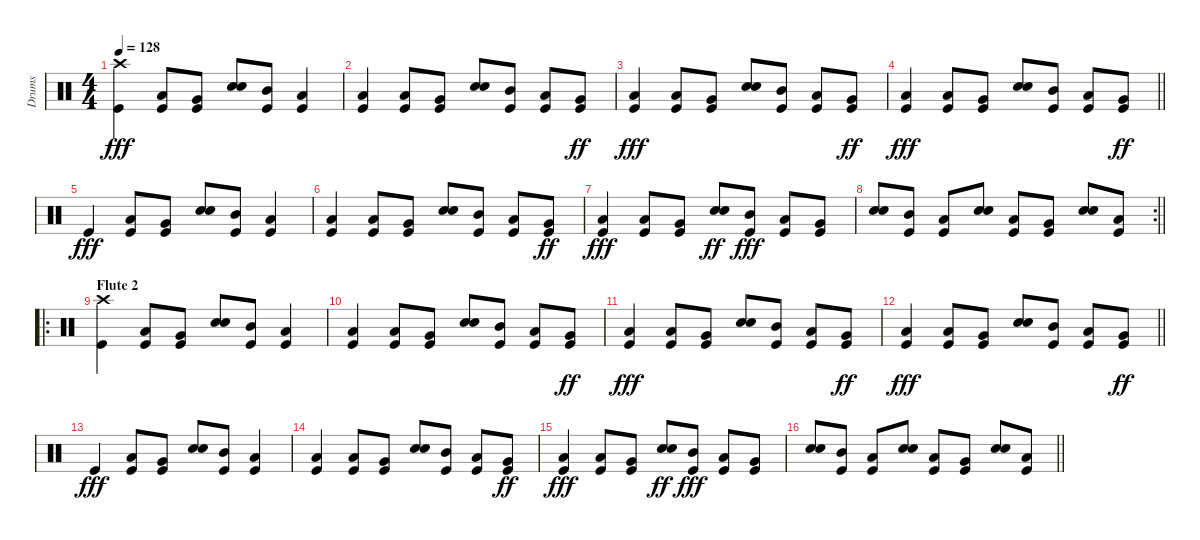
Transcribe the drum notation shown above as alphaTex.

\track ("Drums" "Drums") {instrument percussion}
\staff {score}
\articulation defaults
\ts (4 4)
\tempo 128
\clef neutral
\ks c
("Crash high (hit)" "Kick (hit)").4{dy fff} ("Low Tom (hit)" "Kick (hit)").8 ("Very Low Tom (hit)" "Kick (hit)").8 ("Snare (hit) 2" "Electric Snare (hit)").8 ("Mid Tom (hit)" "Kick (hit)").8 ("Low Tom (hit)" "Kick (hit)").4 |
("Low Tom (hit)" "Kick (hit)").4 ("Low Tom (hit)" "Kick (hit)").8 ("Very Low Tom (hit)" "Kick (hit)").8 ("Snare (hit) 2" "Electric Snare (hit)").8 ("Mid Tom (hit)" "Kick (hit)").8 ("Low Tom (hit)" "Kick (hit)").8 ("Very Low Tom (hit)" "Kick (hit)").8{dy ff} |
("Low Tom (hit)" "Kick (hit)").4{dy fff} ("Low Tom (hit)" "Kick (hit)").8 ("Very Low Tom (hit)" "Kick (hit)").8 ("Snare (hit) 2" "Electric Snare (hit)").8 ("Mid Tom (hit)" "Kick (hit)").8 ("Low Tom (hit)" "Kick (hit)").8 ("Very Low Tom (hit)" "Kick (hit)").8{dy ff} |
\barLineRight lightlight
("Low Tom (hit)" "Kick (hit)").4{dy fff} ("Low Tom (hit)" "Kick (hit)").8 ("Very Low Tom (hit)" "Kick (hit)").8 ("Snare (hit) 2" "Electric Snare (hit)").8 ("Mid Tom (hit)" "Kick (hit)").8 ("Low Tom (hit)" "Kick (hit)").8 ("Very Low Tom (hit)" "Kick (hit)").8{dy ff} |
"Kick (hit)".4{dy fff} ("Low Tom (hit)" "Kick (hit)").8 ("Very Low Tom (hit)" "Kick (hit)").8 ("Snare (hit) 2" "Electric Snare (hit)").8 ("Mid Tom (hit)" "Kick (hit)").8 ("Low Tom (hit)" "Kick (hit)").4 |
("Low Tom (hit)" "Kick (hit)").4 ("Low Tom (hit)" "Kick (hit)").8 ("Very Low Tom (hit)" "Kick (hit)").8 ("Snare (hit) 2" "Electric Snare (hit)").8 ("Mid Tom (hit)" "Kick (hit)").8 ("Low Tom (hit)" "Kick (hit)").8 ("Very Low Tom (hit)" "Kick (hit)").8{dy ff} |
("Low Tom (hit)" "Kick (hit)").4{dy fff} ("Low Tom (hit)" "Kick (hit)").8 ("Very Low Tom (hit)" "Kick (hit)").8 ("Snare (hit) 2" "Electric Snare (hit)").8{dy ff} ("Mid Tom (hit)" "Kick (hit)").8{dy fff} ("Low Tom (hit)" "Kick (hit)").8 ("Very Low Tom (hit)" "Kick (hit)").8 |
\rc 2
\barLineRight lightlight
("Snare (hit) 2" "Electric Snare (hit)").8 ("Mid Tom (hit)" "Kick (hit)").8 ("Low Tom (hit)" "Kick (hit)").8 ("Snare (hit) 2" "Electric Snare (hit)").8 ("Low Tom (hit)" "Kick (hit)").8 ("Very Low Tom (hit)" "Kick (hit)").8 ("Snare (hit) 2" "Electric Snare (hit)").8 ("Low Tom (hit)" "Kick (hit)").8 |
\ro
\section ("" "Flute 2")
("Crash high (hit)" "Kick (hit)").4 ("Low Tom (hit)" "Kick (hit)").8 ("Very Low Tom (hit)" "Kick (hit)").8 ("Snare (hit) 2" "Electric Snare (hit)").8 ("Mid Tom (hit)" "Kick (hit)").8 ("Low Tom (hit)" "Kick (hit)").4 |
("Low Tom (hit)" "Kick (hit)").4 ("Low Tom (hit)" "Kick (hit)").8 ("Very Low Tom (hit)" "Kick (hit)").8 ("Snare (hit) 2" "Electric Snare (hit)").8 ("Mid Tom (hit)" "Kick (hit)").8 ("Low Tom (hit)" "Kick (hit)").8 ("Very Low Tom (hit)" "Kick (hit)").8{dy ff} |
("Low Tom (hit)" "Kick (hit)").4{dy fff} ("Low Tom (hit)" "Kick (hit)").8 ("Very Low Tom (hit)" "Kick (hit)").8 ("Snare (hit) 2" "Electric Snare (hit)").8 ("Mid Tom (hit)" "Kick (hit)").8 ("Low Tom (hit)" "Kick (hit)").8 ("Very Low Tom (hit)" "Kick (hit)").8{dy ff} |
\barLineRight lightlight
("Low Tom (hit)" "Kick (hit)").4{dy fff} ("Low Tom (hit)" "Kick (hit)").8 ("Very Low Tom (hit)" "Kick (hit)").8 ("Snare (hit) 2" "Electric Snare (hit)").8 ("Mid Tom (hit)" "Kick (hit)").8 ("Low Tom (hit)" "Kick (hit)").8 ("Very Low Tom (hit)" "Kick (hit)").8{dy ff} |
\section ("" "")
"Kick (hit)".4{dy fff} ("Low Tom (hit)" "Kick (hit)").8 ("Very Low Tom (hit)" "Kick (hit)").8 ("Snare (hit) 2" "Electric Snare (hit)").8 ("Mid Tom (hit)" "Kick (hit)").8 ("Low Tom (hit)" "Kick (hit)").4 |
("Low Tom (hit)" "Kick (hit)").4 ("Low Tom (hit)" "Kick (hit)").8 ("Very Low Tom (hit)" "Kick (hit)").8 ("Snare (hit) 2" "Electric Snare (hit)").8 ("Mid Tom (hit)" "Kick (hit)").8 ("Low Tom (hit)" "Kick (hit)").8 ("Very Low Tom (hit)" "Kick (hit)").8{dy ff} |
("Low Tom (hit)" "Kick (hit)").4{dy fff} ("Low Tom (hit)" "Kick (hit)").8 ("Very Low Tom (hit)" "Kick (hit)").8 ("Snare (hit) 2" "Electric Snare (hit)").8{dy ff} ("Mid Tom (hit)" "Kick (hit)").8{dy fff} ("Low Tom (hit)" "Kick (hit)").8 ("Very Low Tom (hit)" "Kick (hit)").8 |
\barLineRight lightlight
("Snare (hit) 2" "Electric Snare (hit)").8 ("Mid Tom (hit)" "Kick (hit)").8 ("Low Tom (hit)" "Kick (hit)").8 ("Snare (hit) 2" "Electric Snare (hit)").8 ("Low Tom (hit)" "Kick (hit)").8 ("Very Low Tom (hit)" "Kick (hit)").8 ("Snare (hit) 2" "Electric Snare (hit)").8 ("Low Tom (hit)" "Kick (hit)").8
